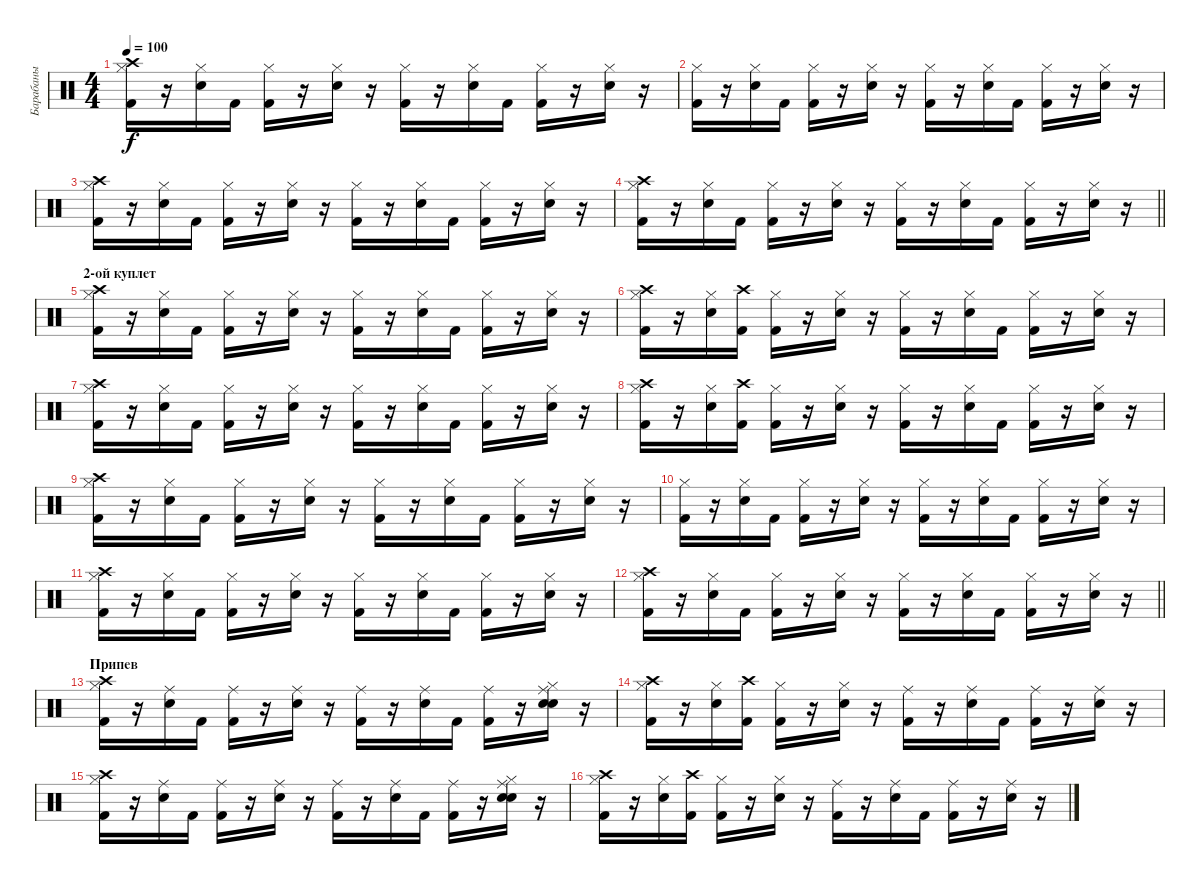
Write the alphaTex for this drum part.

\track ("Барабаны" "Барабаны") {instrument percussion}
\staff {score}
\articulation defaults
\ts (4 4)
\tempo 100
\clef neutral
\ks c
("Kick (hit) 2" "Hi-Hat (closed)" "Crash high (hit)").16{dy f} r.16 ("Electric Snare (hit)" "Hi-Hat (closed)").16 "Kick (hit) 2".16 ("Kick (hit) 2" "Hi-Hat (closed)").16 r.16 ("Electric Snare (hit)" "Hi-Hat (closed)").16 r.16 ("Kick (hit) 2" "Hi-Hat (closed)").16 r.16 ("Electric Snare (hit)" "Hi-Hat (closed)").16 "Kick (hit) 2".16 ("Kick (hit) 2" "Hi-Hat (closed)").16 r.16 ("Electric Snare (hit)" "Hi-Hat (closed)").16 r.16 |
("Kick (hit) 2" "Hi-Hat (closed)").16 r.16 ("Electric Snare (hit)" "Hi-Hat (closed)").16 "Kick (hit) 2".16 ("Kick (hit) 2" "Hi-Hat (closed)").16 r.16 ("Electric Snare (hit)" "Hi-Hat (closed)").16 r.16 ("Kick (hit) 2" "Hi-Hat (closed)").16 r.16 ("Electric Snare (hit)" "Hi-Hat (closed)").16 "Kick (hit) 2".16 ("Kick (hit) 2" "Hi-Hat (closed)").16 r.16 ("Electric Snare (hit)" "Hi-Hat (closed)").16 r.16 |
("Kick (hit) 2" "Hi-Hat (closed)" "Crash high (hit)").16 r.16 ("Electric Snare (hit)" "Hi-Hat (closed)").16 "Kick (hit) 2".16 ("Kick (hit) 2" "Hi-Hat (closed)").16 r.16 ("Electric Snare (hit)" "Hi-Hat (closed)").16 r.16 ("Kick (hit) 2" "Hi-Hat (closed)").16 r.16 ("Electric Snare (hit)" "Hi-Hat (closed)").16 "Kick (hit) 2".16 ("Kick (hit) 2" "Hi-Hat (closed)").16 r.16 ("Electric Snare (hit)" "Hi-Hat (closed)").16 r.16 |
\barLineRight lightlight
("Kick (hit) 2" "Hi-Hat (closed)" "Crash high (hit)").16 r.16 ("Electric Snare (hit)" "Hi-Hat (closed)").16 "Kick (hit) 2".16 ("Kick (hit) 2" "Hi-Hat (closed)").16 r.16 ("Electric Snare (hit)" "Hi-Hat (closed)").16 r.16 ("Kick (hit) 2" "Hi-Hat (closed)").16 r.16 ("Electric Snare (hit)" "Hi-Hat (closed)").16 "Kick (hit) 2".16 ("Kick (hit) 2" "Hi-Hat (closed)").16 r.16 ("Electric Snare (hit)" "Hi-Hat (closed)").16 r.16 |
\section ("" "2-ой куплет")
("Kick (hit) 2" "Hi-Hat (closed)" "Crash high (hit)").16 r.16 ("Electric Snare (hit)" "Hi-Hat (closed)").16 "Kick (hit) 2".16 ("Kick (hit) 2" "Hi-Hat (closed)").16 r.16 ("Electric Snare (hit)" "Hi-Hat (closed)").16 r.16 ("Kick (hit) 2" "Hi-Hat (closed)").16 r.16 ("Electric Snare (hit)" "Hi-Hat (closed)").16 "Kick (hit) 2".16 ("Kick (hit) 2" "Hi-Hat (closed)").16 r.16 ("Electric Snare (hit)" "Hi-Hat (closed)").16 r.16 |
("Kick (hit) 2" "Hi-Hat (closed)" "Crash high (hit)").16 r.16 ("Electric Snare (hit)" "Hi-Hat (closed)").16 ("Kick (hit) 2" "Crash high (hit)").16 ("Kick (hit) 2" "Hi-Hat (closed)").16 r.16 ("Electric Snare (hit)" "Hi-Hat (closed)").16 r.16 ("Kick (hit) 2" "Hi-Hat (closed)").16 r.16 ("Electric Snare (hit)" "Hi-Hat (closed)").16 "Kick (hit) 2".16 ("Kick (hit) 2" "Hi-Hat (closed)").16 r.16 ("Electric Snare (hit)" "Hi-Hat (closed)").16 r.16 |
("Kick (hit) 2" "Hi-Hat (closed)" "Crash high (hit)").16 r.16 ("Electric Snare (hit)" "Hi-Hat (closed)").16 "Kick (hit) 2".16 ("Kick (hit) 2" "Hi-Hat (closed)").16 r.16 ("Electric Snare (hit)" "Hi-Hat (closed)").16 r.16 ("Kick (hit) 2" "Hi-Hat (closed)").16 r.16 ("Electric Snare (hit)" "Hi-Hat (closed)").16 "Kick (hit) 2".16 ("Kick (hit) 2" "Hi-Hat (closed)").16 r.16 ("Electric Snare (hit)" "Hi-Hat (closed)").16 r.16 |
("Kick (hit) 2" "Hi-Hat (closed)" "Crash high (hit)").16 r.16 ("Electric Snare (hit)" "Hi-Hat (closed)").16 ("Kick (hit) 2" "Crash high (hit)").16 ("Kick (hit) 2" "Hi-Hat (closed)").16 r.16 ("Electric Snare (hit)" "Hi-Hat (closed)").16 r.16 ("Kick (hit) 2" "Hi-Hat (closed)").16 r.16 ("Electric Snare (hit)" "Hi-Hat (closed)").16 "Kick (hit) 2".16 ("Kick (hit) 2" "Hi-Hat (closed)").16 r.16 ("Electric Snare (hit)" "Hi-Hat (closed)").16 r.16 |
("Kick (hit) 2" "Hi-Hat (closed)" "Crash high (hit)").16 r.16 ("Electric Snare (hit)" "Hi-Hat (closed)").16 "Kick (hit) 2".16 ("Kick (hit) 2" "Hi-Hat (closed)").16 r.16 ("Electric Snare (hit)" "Hi-Hat (closed)").16 r.16 ("Kick (hit) 2" "Hi-Hat (closed)").16 r.16 ("Electric Snare (hit)" "Hi-Hat (closed)").16 "Kick (hit) 2".16 ("Kick (hit) 2" "Hi-Hat (closed)").16 r.16 ("Electric Snare (hit)" "Hi-Hat (closed)").16 r.16 |
("Kick (hit) 2" "Hi-Hat (closed)").16 r.16 ("Electric Snare (hit)" "Hi-Hat (closed)").16 "Kick (hit) 2".16 ("Kick (hit) 2" "Hi-Hat (closed)").16 r.16 ("Electric Snare (hit)" "Hi-Hat (closed)").16 r.16 ("Kick (hit) 2" "Hi-Hat (closed)").16 r.16 ("Electric Snare (hit)" "Hi-Hat (closed)").16 "Kick (hit) 2".16 ("Kick (hit) 2" "Hi-Hat (closed)").16 r.16 ("Electric Snare (hit)" "Hi-Hat (closed)").16 r.16 |
("Kick (hit) 2" "Hi-Hat (closed)" "Crash high (hit)").16 r.16 ("Electric Snare (hit)" "Hi-Hat (closed)").16 "Kick (hit) 2".16 ("Kick (hit) 2" "Hi-Hat (closed)").16 r.16 ("Electric Snare (hit)" "Hi-Hat (closed)").16 r.16 ("Kick (hit) 2" "Hi-Hat (closed)").16 r.16 ("Electric Snare (hit)" "Hi-Hat (closed)").16 "Kick (hit) 2".16 ("Kick (hit) 2" "Hi-Hat (closed)").16 r.16 ("Electric Snare (hit)" "Hi-Hat (closed)").16 r.16 |
\barLineRight lightlight
("Kick (hit) 2" "Hi-Hat (closed)" "Crash high (hit)").16 r.16 ("Electric Snare (hit)" "Hi-Hat (closed)").16 "Kick (hit) 2".16 ("Kick (hit) 2" "Hi-Hat (closed)").16 r.16 ("Electric Snare (hit)" "Hi-Hat (closed)").16 r.16 ("Kick (hit) 2" "Hi-Hat (closed)").16 r.16 ("Electric Snare (hit)" "Hi-Hat (closed)").16 "Kick (hit) 2".16 ("Kick (hit) 2" "Hi-Hat (closed)").16 r.16 ("Electric Snare (hit)" "Hi-Hat (closed)").16 r.16 |
\section ("" "Припев")
("Kick (hit) 2" "Hi-Hat (closed)" "Crash high (hit)").16 r.16 ("Electric Snare (hit)" "Ride (middle)").16 "Kick (hit) 2".16 ("Kick (hit) 2" "Ride (middle)").16 r.16 ("Electric Snare (hit)" "Ride (middle)").16 r.16 ("Kick (hit) 2" "Ride (middle)").16 r.16 ("Electric Snare (hit)" "Ride (middle)").16 "Kick (hit) 2".16 ("Kick (hit) 2" "Ride (middle)").16 r.16 ("Electric Snare (hit)" "Hi-Hat (closed)" "Electric Snare (hit)" "Ride (middle)").16 r.16 |
("Kick (hit) 2" "Hi-Hat (closed)" "Crash high (hit)").16 r.16 ("Electric Snare (hit)" "Hi-Hat (closed)").16 ("Kick (hit) 2" "Crash high (hit)").16 ("Kick (hit) 2" "Hi-Hat (closed)").16 r.16 ("Electric Snare (hit)" "Hi-Hat (closed)").16 r.16 ("Kick (hit) 2" "Ride (middle)").16 r.16 ("Electric Snare (hit)" "Ride (middle)").16 "Kick (hit) 2".16 ("Kick (hit) 2" "Ride (middle)").16 r.16 ("Electric Snare (hit)" "Ride (middle)").16 r.16 |
("Kick (hit) 2" "Hi-Hat (closed)" "Crash high (hit)").16 r.16 ("Electric Snare (hit)" "Ride (middle)").16 "Kick (hit) 2".16 ("Kick (hit) 2" "Ride (middle)").16 r.16 ("Electric Snare (hit)" "Ride (middle)").16 r.16 ("Kick (hit) 2" "Ride (middle)").16 r.16 ("Electric Snare (hit)" "Ride (middle)").16 "Kick (hit) 2".16 ("Kick (hit) 2" "Ride (middle)").16 r.16 ("Electric Snare (hit)" "Hi-Hat (closed)" "Electric Snare (hit)" "Ride (middle)").16 r.16 |
("Kick (hit) 2" "Hi-Hat (closed)" "Crash high (hit)").16 r.16 ("Electric Snare (hit)" "Hi-Hat (closed)").16 ("Kick (hit) 2" "Crash high (hit)").16 ("Kick (hit) 2" "Hi-Hat (closed)").16 r.16 ("Electric Snare (hit)" "Hi-Hat (closed)").16 r.16 ("Kick (hit) 2" "Ride (middle)").16 r.16 ("Electric Snare (hit)" "Ride (middle)").16 "Kick (hit) 2".16 ("Kick (hit) 2" "Ride (middle)").16 r.16 ("Electric Snare (hit)" "Ride (middle)").16 r.16
